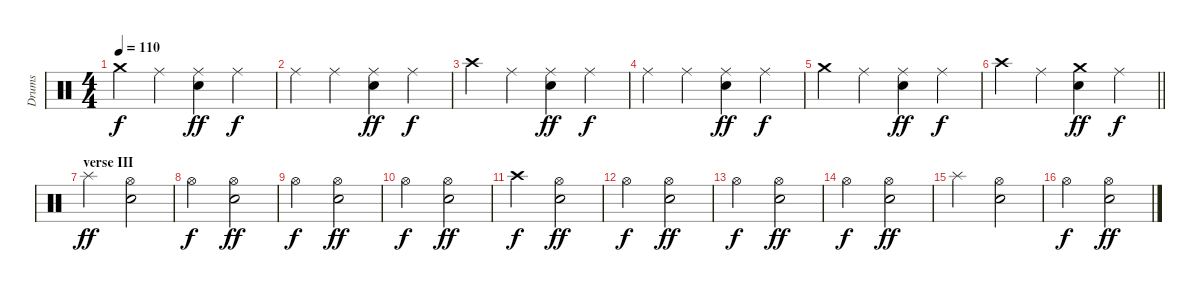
\track ("Drums" "Drums") {instrument percussion}
\staff {score}
\articulation defaults
\ts (4 4)
\tempo 110
\clef neutral
\ks c "Crash medium (hit)".4{dy f} "Ride (middle)".4
("Ride (middle)" "Snare (hit) 2").4{dy ff} "Ride (middle)".4{dy f} |
"Ride (middle)".4 "Ride (middle)".4 ("Ride (middle)" "Snare (hit) 2").4{dy ff} "Ride (middle)".4{dy f} |
"Crash high (hit)".4 "Ride (middle)".4 ("Ride (middle)" "Snare (hit) 2").4{dy ff} "Ride (middle)".4{dy f} |
"Ride (middle)".4 "Ride (middle)".4 ("Ride (middle)" "Snare (hit) 2").4{dy ff} "Ride (middle)".4{dy f} |
"Crash medium (hit)".4 "Ride (middle)".4 ("Ride (middle)" "Snare (hit) 2").4{dy ff} "Ride (middle)".4{dy f} |
\barLineRight lightlight "Crash high (hit)".4 "Ride (middle)".4
("Crash medium (hit)" "Snare (hit) 2").4{dy ff} "Ride (middle)".4{dy f} |
\section ("" "verse III")
"Splash (hit)".2{dy ff} ("Hi-Hat (open)" "Snare (hit) 2").2 |
"Hi-Hat (open)".2{dy f} ("Hi-Hat (open)" "Snare (hit) 2").2{dy ff} |
"Hi-Hat (open)".2{dy f} ("Hi-Hat (open)" "Snare (hit) 2").2{dy ff} |
"Hi-Hat (open)".2{dy f} ("Hi-Hat (open)" "Snare (hit) 2").2{dy ff} |
"Crash high (hit)".2{dy f} ("Hi-Hat (open)" "Snare (hit) 2").2{dy ff} |
"Hi-Hat (open)".2{dy f} ("Hi-Hat (open)" "Snare (hit) 2").2{dy ff} |
"Hi-Hat (open)".2{dy f} ("Hi-Hat (open)" "Snare (hit) 2").2{dy ff} |
"Hi-Hat (open)".2{dy f} ("Hi-Hat (open)" "Snare (hit) 2").2{dy ff} |
"Splash (hit)".2 ("Hi-Hat (open)" "Snare (hit) 2").2 |
"Hi-Hat (open)".2{dy f} ("Hi-Hat (open)" "Snare (hit) 2").2{dy ff}
